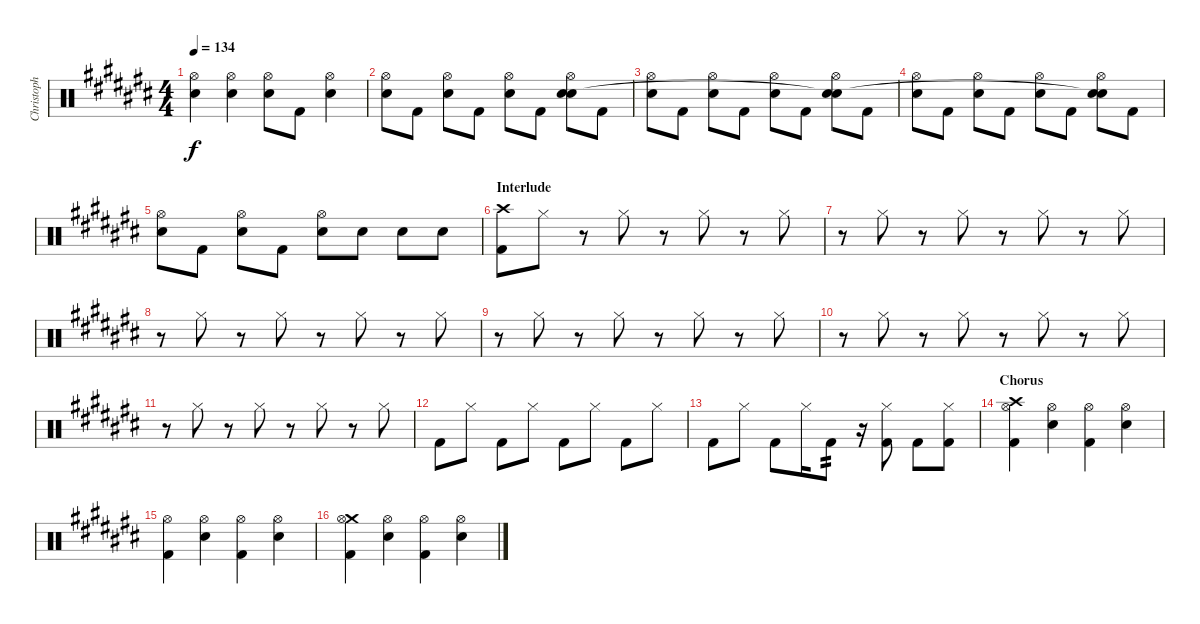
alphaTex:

\track ("Christoph Doom Schneider - Drums" "Christoph ") {instrument percussion}
\staff {score}
\articulation defaults
\ts (4 4)
\tempo 134
\clef neutral
\ks c#
("Hi-Hat (open)" "Electric Snare (hit)").4{dy f} ("Hi-Hat (open)" "Electric Snare (hit)").4 ("Hi-Hat (open)" "Electric Snare (hit)").8 "Kick (hit) 2"{tr (36 32)}.8 ("Hi-Hat (open)" "Electric Snare (hit)").4 |
("Hi-Hat (open)" "Electric Snare (hit)").8 "Kick (hit) 2".8 ("Hi-Hat (open)" "Electric Snare (hit)").8 "Kick (hit) 2".8 ("Hi-Hat (open)" "Electric Snare (hit)").8 "Kick (hit) 2"{tr (36 16)}.8 ("Hi-Hat (open)" "Electric Snare (hit)" "Snare (hit)").8 "Kick (hit) 2".8 |
("Hi-Hat (open)" "Electric Snare (hit)").8 "Kick (hit) 2".8 ("Hi-Hat (open)" "Electric Snare (hit)").8 "Kick (hit) 2".8 ("Hi-Hat (open)" "Electric Snare (hit)").8 "Kick (hit) 2"{tr (36 16)}.8 ("Hi-Hat (open)" "Electric Snare (hit)" "Snare (hit)"{t}).8 "Kick (hit) 2".8 |
("Hi-Hat (open)" "Electric Snare (hit)").8 "Kick (hit) 2".8 ("Hi-Hat (open)" "Electric Snare (hit)").8 "Kick (hit) 2".8 ("Hi-Hat (open)" "Electric Snare (hit)").8 "Kick (hit) 2"{tr (36 16)}.8 ("Hi-Hat (open)" "Electric Snare (hit)" "Snare (hit)"{t}).8 "Kick (hit) 2".8 |
("Hi-Hat (open)" "Electric Snare (hit)").8 "Kick (hit) 2".8 ("Hi-Hat (open)" "Electric Snare (hit)").8 "Kick (hit) 2".8 ("Hi-Hat (open)" "Electric Snare (hit)").8 "Electric Snare (hit)".8 "Electric Snare (hit)".8 "Electric Snare (hit)".8 |
\section ("" "Interlude")
("Crash high (hit)" "Kick (hit) 2").8 "Hi-Hat (closed)".8 r.8 "Hi-Hat (closed)".8 r.8 "Hi-Hat (closed)".8 r.8 "Hi-Hat (closed)".8 |
r.8 "Hi-Hat (closed)".8 r.8 "Hi-Hat (closed)".8 r.8 "Hi-Hat (closed)".8 r.8 "Hi-Hat (closed)".8 |
r.8 "Hi-Hat (closed)".8 r.8 "Hi-Hat (closed)".8 r.8 "Hi-Hat (closed)".8 r.8 "Hi-Hat (closed)".8 |
r.8 "Hi-Hat (closed)".8 r.8 "Hi-Hat (closed)".8 r.8 "Hi-Hat (closed)".8 r.8 "Hi-Hat (closed)".8 |
r.8 "Hi-Hat (closed)".8 r.8 "Hi-Hat (closed)".8 r.8 "Hi-Hat (closed)".8 r.8 "Hi-Hat (closed)".8 |
r.8 "Hi-Hat (closed)".8 r.8 "Hi-Hat (closed)".8 r.8 "Hi-Hat (closed)".8 r.8 "Hi-Hat (closed)".8 |
"Kick (hit) 2".8 "Hi-Hat (closed)".8 "Kick (hit) 2".8 "Hi-Hat (closed)".8 "Kick (hit) 2".8 "Hi-Hat (closed)".8 "Kick (hit) 2".8 "Hi-Hat (closed)".8 |
"Kick (hit) 2".8 "Hi-Hat (closed)".8 "Kick (hit) 2".8 "Hi-Hat (closed)".16 "Kick (hit) 2".8{tp 2} r.16 ("Hi-Hat (closed)" "Kick (hit) 2").8 "Kick (hit) 2".8 ("Hi-Hat (closed)" "Kick (hit) 2").8 |
\section ("" "Chorus")
("Crash high (hit)" "Hi-Hat (open)" "Kick (hit) 2").4 ("Hi-Hat (open)" "Electric Snare (hit)").4 ("Hi-Hat (open)" "Kick (hit) 2").4 ("Hi-Hat (open)" "Electric Snare (hit)").4 |
("Hi-Hat (open)" "Kick (hit) 2").4 ("Hi-Hat (open)" "Electric Snare (hit)").4 ("Hi-Hat (open)" "Kick (hit) 2").4 ("Hi-Hat (open)" "Electric Snare (hit)").4 |
("Crash medium (hit)" "Hi-Hat (open)" "Kick (hit) 2").4 ("Hi-Hat (open)" "Electric Snare (hit)").4 ("Hi-Hat (open)" "Kick (hit) 2").4 ("Hi-Hat (open)" "Electric Snare (hit)").4
